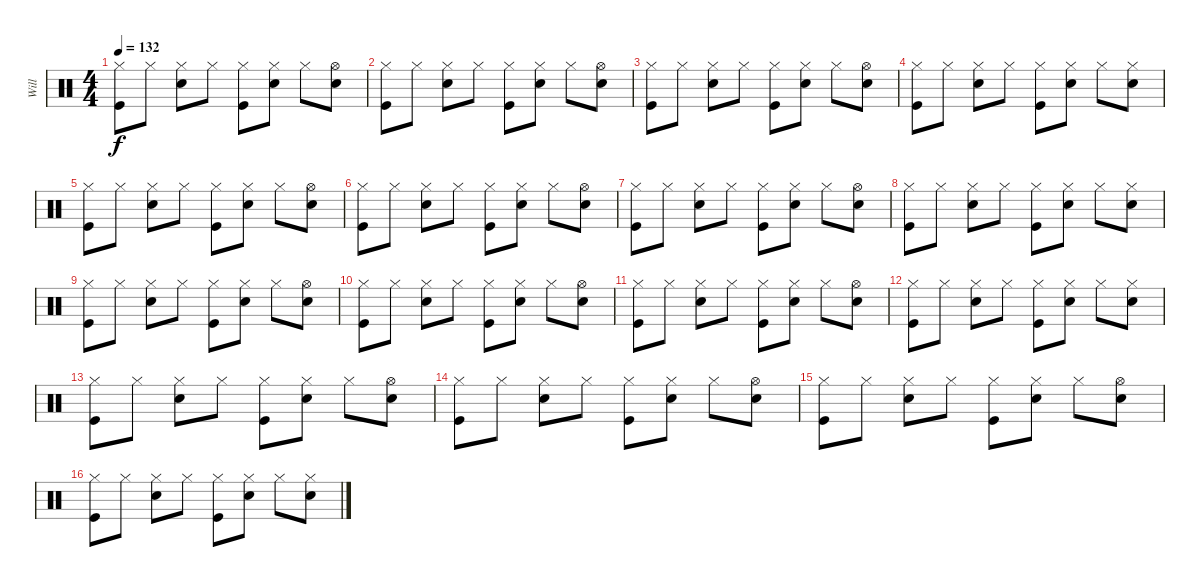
\track ("Will" "Will") {instrument percussion}
\staff {score}
\articulation defaults
\ts (4 4)
\tempo 132
\clef neutral
\ks c
("Hi-Hat (closed)" "Kick (hit)").8{dy f} "Hi-Hat (closed)".8 ("Hi-Hat (closed)" "Snare (hit) 2").8 "Hi-Hat (closed)".8 ("Hi-Hat (closed)" "Kick (hit)").8 ("Hi-Hat (closed)" "Snare (hit) 2").8 "Hi-Hat (closed)".8 ("Hi-Hat (open)" "Snare (hit) 2").8 |
("Hi-Hat (closed)" "Kick (hit)").8 "Hi-Hat (closed)".8 ("Hi-Hat (closed)" "Snare (hit) 2").8 "Hi-Hat (closed)".8 ("Hi-Hat (closed)" "Kick (hit)").8 ("Hi-Hat (closed)" "Snare (hit) 2").8 "Hi-Hat (closed)".8 ("Hi-Hat (open)" "Snare (hit) 2").8 |
("Hi-Hat (closed)" "Kick (hit)").8 "Hi-Hat (closed)".8 ("Hi-Hat (closed)" "Snare (hit) 2").8 "Hi-Hat (closed)".8 ("Hi-Hat (closed)" "Kick (hit)").8 ("Hi-Hat (closed)" "Snare (hit) 2").8 "Hi-Hat (closed)".8 ("Hi-Hat (open)" "Snare (hit) 2").8 |
("Hi-Hat (closed)" "Kick (hit)").8 "Hi-Hat (closed)".8 ("Hi-Hat (closed)" "Snare (hit) 2").8 "Hi-Hat (closed)".8 ("Hi-Hat (closed)" "Kick (hit)").8 ("Hi-Hat (closed)" "Snare (hit) 2").8 "Hi-Hat (closed)".8 ("Hi-Hat (closed)" "Snare (hit) 2").8 |
("Hi-Hat (closed)" "Kick (hit)").8 "Hi-Hat (closed)".8 ("Hi-Hat (closed)" "Snare (hit) 2").8 "Hi-Hat (closed)".8 ("Hi-Hat (closed)" "Kick (hit)").8 ("Hi-Hat (closed)" "Snare (hit) 2").8 "Hi-Hat (closed)".8 ("Hi-Hat (open)" "Snare (hit) 2").8 |
("Hi-Hat (closed)" "Kick (hit)").8 "Hi-Hat (closed)".8 ("Hi-Hat (closed)" "Snare (hit) 2").8 "Hi-Hat (closed)".8 ("Hi-Hat (closed)" "Kick (hit)").8 ("Hi-Hat (closed)" "Snare (hit) 2").8 "Hi-Hat (closed)".8 ("Hi-Hat (open)" "Snare (hit) 2").8 |
("Hi-Hat (closed)" "Kick (hit)").8 "Hi-Hat (closed)".8 ("Hi-Hat (closed)" "Snare (hit) 2").8 "Hi-Hat (closed)".8 ("Hi-Hat (closed)" "Kick (hit)").8 ("Hi-Hat (closed)" "Snare (hit) 2").8 "Hi-Hat (closed)".8 ("Hi-Hat (open)" "Snare (hit) 2").8 |
("Hi-Hat (closed)" "Kick (hit)").8 "Hi-Hat (closed)".8 ("Hi-Hat (closed)" "Snare (hit) 2").8 "Hi-Hat (closed)".8 ("Hi-Hat (closed)" "Kick (hit)").8 ("Hi-Hat (closed)" "Snare (hit) 2").8 "Hi-Hat (closed)".8 ("Hi-Hat (closed)" "Snare (hit) 2").8 |
("Hi-Hat (closed)" "Kick (hit)").8 "Hi-Hat (closed)".8 ("Hi-Hat (closed)" "Snare (hit) 2").8 "Hi-Hat (closed)".8 ("Hi-Hat (closed)" "Kick (hit)").8 ("Hi-Hat (closed)" "Snare (hit) 2").8 "Hi-Hat (closed)".8 ("Hi-Hat (open)" "Snare (hit) 2").8 |
("Hi-Hat (closed)" "Kick (hit)").8 "Hi-Hat (closed)".8 ("Hi-Hat (closed)" "Snare (hit) 2").8 "Hi-Hat (closed)".8 ("Hi-Hat (closed)" "Kick (hit)").8 ("Hi-Hat (closed)" "Snare (hit) 2").8 "Hi-Hat (closed)".8 ("Hi-Hat (open)" "Snare (hit) 2").8 |
("Hi-Hat (closed)" "Kick (hit)").8 "Hi-Hat (closed)".8 ("Hi-Hat (closed)" "Snare (hit) 2").8 "Hi-Hat (closed)".8 ("Hi-Hat (closed)" "Kick (hit)").8 ("Hi-Hat (closed)" "Snare (hit) 2").8 "Hi-Hat (closed)".8 ("Hi-Hat (open)" "Snare (hit) 2").8 |
("Hi-Hat (closed)" "Kick (hit)").8 "Hi-Hat (closed)".8 ("Hi-Hat (closed)" "Snare (hit) 2").8 "Hi-Hat (closed)".8 ("Hi-Hat (closed)" "Kick (hit)").8 ("Hi-Hat (closed)" "Snare (hit) 2").8 "Hi-Hat (closed)".8 ("Hi-Hat (closed)" "Snare (hit) 2").8 |
("Hi-Hat (closed)" "Kick (hit)").8 "Hi-Hat (closed)".8 ("Hi-Hat (closed)" "Snare (hit) 2").8 "Hi-Hat (closed)".8 ("Hi-Hat (closed)" "Kick (hit)").8 ("Hi-Hat (closed)" "Snare (hit) 2").8 "Hi-Hat (closed)".8 ("Hi-Hat (open)" "Snare (hit) 2").8 |
("Hi-Hat (closed)" "Kick (hit)").8 "Hi-Hat (closed)".8 ("Hi-Hat (closed)" "Snare (hit) 2").8 "Hi-Hat (closed)".8 ("Hi-Hat (closed)" "Kick (hit)").8 ("Hi-Hat (closed)" "Snare (hit) 2").8 "Hi-Hat (closed)".8 ("Hi-Hat (open)" "Snare (hit) 2").8 |
("Hi-Hat (closed)" "Kick (hit)").8 "Hi-Hat (closed)".8 ("Hi-Hat (closed)" "Snare (hit) 2").8 "Hi-Hat (closed)".8 ("Hi-Hat (closed)" "Kick (hit)").8 ("Hi-Hat (closed)" "Snare (hit) 2").8 "Hi-Hat (closed)".8 ("Hi-Hat (open)" "Snare (hit) 2").8 |
("Hi-Hat (closed)" "Kick (hit)").8 "Hi-Hat (closed)".8 ("Hi-Hat (closed)" "Snare (hit) 2").8 "Hi-Hat (closed)".8 ("Hi-Hat (closed)" "Kick (hit)").8 ("Hi-Hat (closed)" "Snare (hit) 2").8 "Hi-Hat (closed)".8 ("Hi-Hat (closed)" "Snare (hit) 2").8
